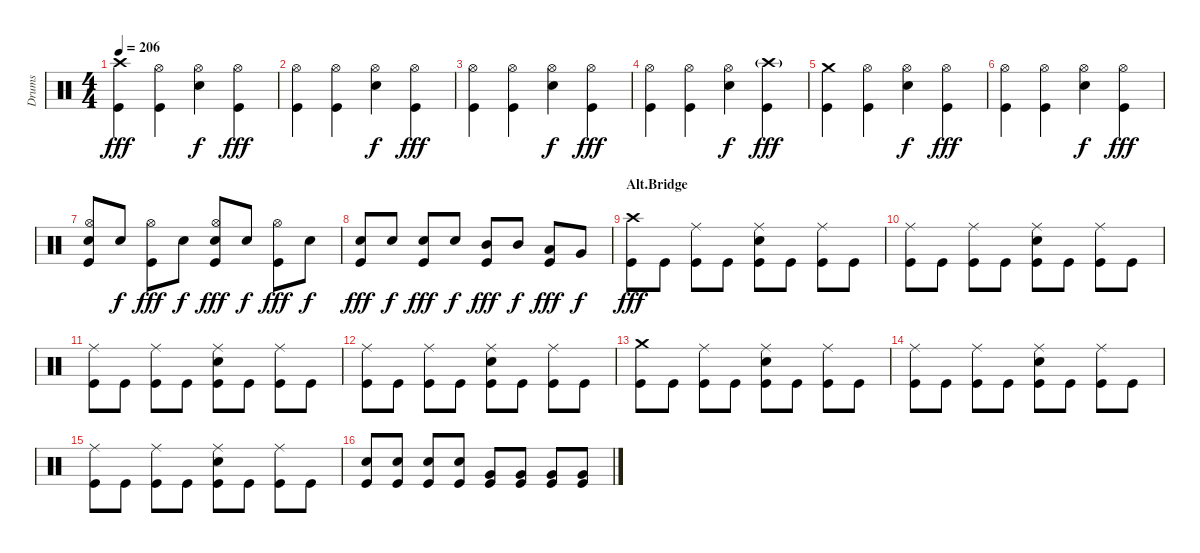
\track ("Drums" "Drums") {instrument percussion}
\staff {score}
\articulation defaults
\ts (4 4)
\tempo 206
\clef neutral
\ks c
("Crash high (hit)" "Kick (hit)").4{dy fff} ("Hi-Hat (open)" "Kick (hit)").4 ("Hi-Hat (open)" "Snare (hit) 2").4{dy f} ("Hi-Hat (open)" "Kick (hit)").4{dy fff} |
("Hi-Hat (open)" "Kick (hit)").4 ("Hi-Hat (open)" "Kick (hit)").4 ("Hi-Hat (open)" "Snare (hit) 2").4{dy f} ("Hi-Hat (open)" "Kick (hit)").4{dy fff} |
("Hi-Hat (open)" "Kick (hit)").4 ("Hi-Hat (open)" "Kick (hit)").4 ("Hi-Hat (open)" "Snare (hit) 2").4{dy f} ("Hi-Hat (open)" "Kick (hit)").4{dy fff} |
("Hi-Hat (open)" "Kick (hit)").4 ("Hi-Hat (open)" "Kick (hit)").4 ("Hi-Hat (open)" "Snare (hit) 2").4{dy f} ("Crash high (hit)"{g} "Kick (hit)").4{dy fff} |
("Crash medium (hit)" "Kick (hit)").4 ("Hi-Hat (open)" "Kick (hit)").4 ("Hi-Hat (open)" "Snare (hit) 2").4{dy f} ("Hi-Hat (open)" "Kick (hit)").4{dy fff} |
("Hi-Hat (open)" "Kick (hit)").4 ("Hi-Hat (open)" "Kick (hit)").4 ("Hi-Hat (open)" "Snare (hit) 2").4{dy f} ("Hi-Hat (open)" "Kick (hit)").4{dy fff} |
("Hi-Hat (open)" "Snare (hit) 2" "Kick (hit)").8 "Snare (hit) 2".8{dy f} ("Hi-Hat (open)" "Kick (hit)").8{dy fff} "Snare (hit) 2".8{dy f} ("Hi-Hat (open)" "Snare (hit) 2" "Kick (hit)").8{dy fff} "Snare (hit) 2".8{dy f} ("Hi-Hat (open)" "Kick (hit)").8{dy fff} "Snare (hit) 2".8{dy f} |
("Snare (hit) 2" "Kick (hit)").8{dy fff} "Snare (hit) 2".8{dy f} ("Snare (hit) 2" "Kick (hit)").8{dy fff} "Snare (hit) 2".8{dy f} ("Mid Tom (hit)" "Kick (hit)").8{dy fff} "Mid Tom (hit)".8{dy f} ("Low Tom (hit)" "Kick (hit)").8{dy fff} "Very Low Tom (hit)".8{dy f} |
\section ("" "Alt.Bridge")
("Crash high (hit)" "Kick (hit)").8{dy fff} "Kick (hit)".8 ("Ride (middle)" "Kick (hit)").8 "Kick (hit)".8 ("Ride (middle)" "Snare (hit) 2" "Kick (hit)").8 "Kick (hit)".8 ("Ride (middle)" "Kick (hit)").8 "Kick (hit)".8 |
("Ride (middle)" "Kick (hit)").8 "Kick (hit)".8 ("Ride (middle)" "Kick (hit)").8 "Kick (hit)".8 ("Ride (middle)" "Snare (hit) 2" "Kick (hit)").8 "Kick (hit)".8 ("Ride (middle)" "Kick (hit)").8 "Kick (hit)".8 |
("Ride (middle)" "Kick (hit)").8 "Kick (hit)".8 ("Ride (middle)" "Kick (hit)").8 "Kick (hit)".8 ("Ride (middle)" "Snare (hit) 2" "Kick (hit)").8 "Kick (hit)".8 ("Ride (middle)" "Kick (hit)").8 "Kick (hit)".8 |
("Ride (middle)" "Kick (hit)").8 "Kick (hit)".8 ("Ride (middle)" "Kick (hit)").8 "Kick (hit)".8 ("Ride (middle)" "Snare (hit) 2" "Kick (hit)").8 "Kick (hit)".8 ("Ride (middle)" "Kick (hit)").8 "Kick (hit)".8 |
("Crash medium (hit)" "Kick (hit)").8 "Kick (hit)".8 ("Ride (middle)" "Kick (hit)").8 "Kick (hit)".8 ("Ride (middle)" "Snare (hit) 2" "Kick (hit)").8 "Kick (hit)".8 ("Ride (middle)" "Kick (hit)").8 "Kick (hit)".8 |
("Ride (middle)" "Kick (hit)").8 "Kick (hit)".8 ("Ride (middle)" "Kick (hit)").8 "Kick (hit)".8 ("Ride (middle)" "Snare (hit) 2" "Kick (hit)").8 "Kick (hit)".8 ("Ride (middle)" "Kick (hit)").8 "Kick (hit)".8 |
("Ride (middle)" "Kick (hit)").8 "Kick (hit)".8 ("Ride (middle)" "Kick (hit)").8 "Kick (hit)".8 ("Ride (middle)" "Snare (hit) 2" "Kick (hit)").8 "Kick (hit)".8 ("Ride (middle)" "Kick (hit)").8 "Kick (hit)".8 |
("Snare (hit) 2" "Kick (hit)").8 ("Snare (hit) 2" "Kick (hit)").8 ("Snare (hit) 2" "Kick (hit)").8 ("Snare (hit) 2" "Kick (hit)").8 ("Very Low Tom (hit)" "Kick (hit)").8 ("Very Low Tom (hit)" "Kick (hit)").8 ("Very Low Tom (hit)" "Kick (hit)").8 ("Very Low Tom (hit)" "Kick (hit)").8
